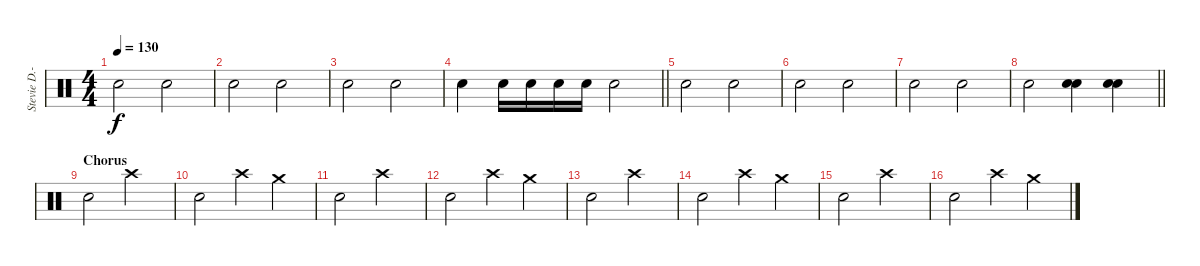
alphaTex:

\track ("Stevie D.-Drums" "Stevie D.-") {instrument percussion}
\staff {score}
\articulation defaults
\ts (4 4)
\tempo 130
\clef neutral
\ks c "Snare (hit) 2".2{dy f} "Snare (hit) 2".2
|
"Snare (hit) 2".2 "Snare (hit) 2".2 |
"Snare (hit) 2".2 "Snare (hit) 2".2 |
\barLineRight lightlight "Snare (hit) 2".4 "Electric Snare (hit)".16 "Electric Snare (hit)".16 "Electric Snare (hit)".16 "Electric Snare (hit)".16 "Snare (hit) 2".2
|
"Snare (hit) 2".2 "Snare (hit) 2".2 |
"Snare (hit) 2".2 "Snare (hit) 2".2 |
"Snare (hit) 2".2 "Snare (hit) 2".2 |
\barLineRight lightlight "Snare (hit) 2".2
("Electric Snare (hit)" "Snare (hit) 2").4 ("Electric Snare (hit)" "Snare (hit) 2").4 |
\section ("" "Chorus")
"Snare (hit) 2".2 "Crash high (hit)".2 |
"Snare (hit) 2".2 "Crash high (hit)".4 "Crash medium (hit)".4 |
"Snare (hit) 2".2 "Crash high (hit)".2 |
"Snare (hit) 2".2 "Crash high (hit)".4 "Crash medium (hit)".4 |
"Snare (hit) 2".2 "Crash high (hit)".2 |
"Snare (hit) 2".2 "Crash high (hit)".4 "Crash medium (hit)".4 |
"Snare (hit) 2".2 "Crash high (hit)".2 |
"Snare (hit) 2".2 "Crash high (hit)".4 "Crash medium (hit)".4
